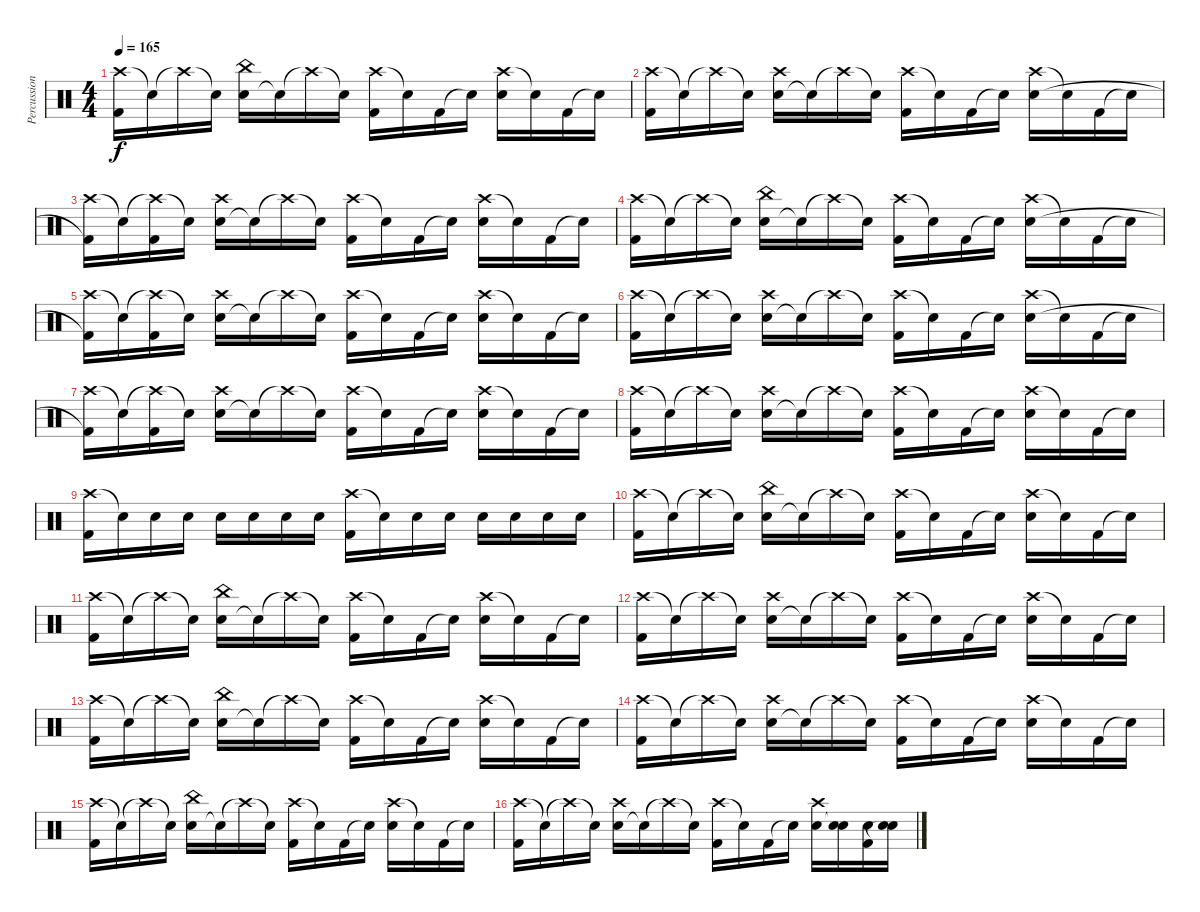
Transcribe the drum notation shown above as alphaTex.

\track ("Percussion" "Percussion") {instrument percussion}
\staff {score}
\articulation defaults
\ts (4 4)
\tempo 165
\clef neutral
\ks c
("Crash high (hit)" "Kick (hit) 2").16{dy f} "Snare (hit)"{t}.16 "Crash high (hit)"{t}.16 "Snare (hit)"{t}.16 ("Electric Snare (hit)" "China (hit)").16 "Snare (hit)"{t}.16 "Crash high (hit)"{t}.16 "Snare (hit)"{t}.16 ("Crash high (hit)" "Kick (hit) 2").16 "Snare (hit)"{t}.16 "Kick (hit) 2".16 "Snare (hit)"{t}.16 ("Crash high (hit)" "Electric Snare (hit)").16 "Snare (hit)"{t}.16 "Kick (hit) 2".16 "Snare (hit)"{t}.16 |
("Crash high (hit)" "Kick (hit) 2").16 "Snare (hit)"{t}.16 "Crash high (hit)"{t}.16 "Snare (hit)"{t}.16 ("Electric Snare (hit)" "Crash high (hit)").16 "Snare (hit)"{t}.16 "Crash high (hit)"{t}.16 "Snare (hit)"{t}.16 ("Crash high (hit)" "Kick (hit) 2").16 "Snare (hit)"{t}.16 "Kick (hit) 2".16 "Snare (hit)"{t}.16 ("Crash high (hit)" "Electric Snare (hit)").16 "Snare (hit)"{t}.16 "Kick (hit) 2".16 "Snare (hit)"{t}.16 |
("Crash high (hit)" "Kick (hit) 2"{t}).16 "Snare (hit)"{t}.16 ("Crash high (hit)"{t} "Kick (hit) 2").16 "Snare (hit)"{t}.16 ("Electric Snare (hit)" "Crash high (hit)").16 "Snare (hit)"{t}.16 "Crash high (hit)"{t}.16 "Snare (hit)"{t}.16 ("Crash high (hit)" "Kick (hit) 2").16 "Snare (hit)"{t}.16 "Kick (hit) 2".16 "Snare (hit)"{t}.16 ("Crash high (hit)" "Electric Snare (hit)").16 "Snare (hit)"{t}.16 "Kick (hit) 2".16 "Snare (hit)"{t}.16 |
("Crash high (hit)" "Kick (hit) 2").16 "Snare (hit)"{t}.16 "Crash high (hit)"{t}.16 "Snare (hit)"{t}.16 ("Electric Snare (hit)" "China (hit)").16 "Snare (hit)"{t}.16 "Crash high (hit)"{t}.16 "Snare (hit)"{t}.16 ("Crash high (hit)" "Kick (hit) 2").16 "Snare (hit)"{t}.16 "Kick (hit) 2".16 "Snare (hit)"{t}.16 ("Crash high (hit)" "Electric Snare (hit)").16 "Snare (hit)"{t}.16 "Kick (hit) 2".16 "Snare (hit)"{t}.16 |
("Crash high (hit)" "Kick (hit) 2"{t}).16 "Snare (hit)"{t}.16 ("Crash high (hit)"{t} "Kick (hit) 2").16 "Snare (hit)"{t}.16 ("Electric Snare (hit)" "Crash high (hit)").16 "Snare (hit)"{t}.16 "Crash high (hit)"{t}.16 "Snare (hit)"{t}.16 ("Crash high (hit)" "Kick (hit) 2").16 "Snare (hit)"{t}.16 "Kick (hit) 2".16 "Snare (hit)"{t}.16 ("Crash high (hit)" "Electric Snare (hit)").16 "Snare (hit)"{t}.16 "Kick (hit) 2".16 "Snare (hit)"{t}.16 |
("Crash high (hit)" "Kick (hit) 2").16 "Snare (hit)"{t}.16 "Crash high (hit)"{t}.16 "Snare (hit)"{t}.16 ("Electric Snare (hit)" "Crash high (hit)").16 "Snare (hit)"{t}.16 "Crash high (hit)"{t}.16 "Snare (hit)"{t}.16 ("Crash high (hit)" "Kick (hit) 2").16 "Snare (hit)"{t}.16 "Kick (hit) 2".16 "Snare (hit)"{t}.16 ("Crash high (hit)" "Electric Snare (hit)").16 "Snare (hit)"{t}.16 "Kick (hit) 2".16 "Snare (hit)"{t}.16 |
("Crash high (hit)" "Kick (hit) 2"{t}).16 "Snare (hit)"{t}.16 ("Crash high (hit)"{t} "Kick (hit) 2").16 "Snare (hit)"{t}.16 ("Electric Snare (hit)" "Crash high (hit)").16 "Snare (hit)"{t}.16 "Crash high (hit)"{t}.16 "Snare (hit)"{t}.16 ("Crash high (hit)" "Kick (hit) 2").16 "Snare (hit)"{t}.16 "Kick (hit) 2".16 "Snare (hit)"{t}.16 ("Crash high (hit)" "Electric Snare (hit)").16 "Snare (hit)"{t}.16 "Kick (hit) 2".16 "Snare (hit)"{t}.16 |
("Crash high (hit)" "Kick (hit) 2").16 "Snare (hit)"{t}.16 "Crash high (hit)"{t}.16 "Snare (hit)"{t}.16 ("Electric Snare (hit)" "Crash high (hit)").16 "Snare (hit)"{t}.16 "Crash high (hit)"{t}.16 "Snare (hit)"{t}.16 ("Crash high (hit)" "Kick (hit) 2").16 "Snare (hit)"{t}.16 "Kick (hit) 2".16 "Snare (hit)"{t}.16 ("Crash high (hit)" "Electric Snare (hit)").16 "Snare (hit)"{t}.16 "Kick (hit) 2".16 "Snare (hit)"{t}.16 |
("Crash high (hit)" "Kick (hit) 2").16 "Snare (hit)"{t}.16 "Electric Snare (hit)".16 "Electric Snare (hit)".16 "Electric Snare (hit)".16 "Electric Snare (hit)".16 "Electric Snare (hit)".16 "Electric Snare (hit)".16 ("Crash high (hit)" "Kick (hit) 2").16 "Snare (hit)"{t}.16 "Electric Snare (hit)".16 "Electric Snare (hit)".16 "Electric Snare (hit)".16 "Electric Snare (hit)".16 "Electric Snare (hit)".16 "Electric Snare (hit)".16 |
("Crash high (hit)" "Kick (hit) 2").16 "Snare (hit)"{t}.16 "Crash high (hit)"{t}.16 "Snare (hit)"{t}.16 ("Electric Snare (hit)" "China (hit)").16 "Snare (hit)"{t}.16 "Crash high (hit)"{t}.16 "Snare (hit)"{t}.16 ("Crash high (hit)" "Kick (hit) 2").16 "Snare (hit)"{t}.16 "Kick (hit) 2".16 "Snare (hit)"{t}.16 ("Crash high (hit)" "Electric Snare (hit)").16 "Snare (hit)"{t}.16 "Kick (hit) 2".16 "Snare (hit)"{t}.16 |
("Crash high (hit)" "Kick (hit) 2").16 "Snare (hit)"{t}.16 "Crash high (hit)"{t}.16 "Snare (hit)"{t}.16 ("Electric Snare (hit)" "China (hit)").16 "Snare (hit)"{t}.16 "Crash high (hit)"{t}.16 "Snare (hit)"{t}.16 ("Crash high (hit)" "Kick (hit) 2").16 "Snare (hit)"{t}.16 "Kick (hit) 2".16 "Snare (hit)"{t}.16 ("Crash high (hit)" "Electric Snare (hit)").16 "Snare (hit)"{t}.16 "Kick (hit) 2".16 "Snare (hit)"{t}.16 |
("Crash high (hit)" "Kick (hit) 2").16 "Snare (hit)"{t}.16 "Crash high (hit)"{t}.16 "Snare (hit)"{t}.16 ("Electric Snare (hit)" "Crash high (hit)").16 "Snare (hit)"{t}.16 "Crash high (hit)"{t}.16 "Snare (hit)"{t}.16 ("Crash high (hit)" "Kick (hit) 2").16 "Snare (hit)"{t}.16 "Kick (hit) 2".16 "Snare (hit)"{t}.16 ("Crash high (hit)" "Electric Snare (hit)").16 "Snare (hit)"{t}.16 "Kick (hit) 2".16 "Snare (hit)"{t}.16 |
("Crash high (hit)" "Kick (hit) 2").16 "Snare (hit)"{t}.16 "Crash high (hit)"{t}.16 "Snare (hit)"{t}.16 ("Electric Snare (hit)" "China (hit)").16 "Snare (hit)"{t}.16 "Crash high (hit)"{t}.16 "Snare (hit)"{t}.16 ("Crash high (hit)" "Kick (hit) 2").16 "Snare (hit)"{t}.16 "Kick (hit) 2".16 "Snare (hit)"{t}.16 ("Crash high (hit)" "Electric Snare (hit)").16 "Snare (hit)"{t}.16 "Kick (hit) 2".16 "Snare (hit)"{t}.16 |
("Crash high (hit)" "Kick (hit) 2").16 "Snare (hit)"{t}.16 "Crash high (hit)"{t}.16 "Snare (hit)"{t}.16 ("Electric Snare (hit)" "Crash high (hit)").16 "Snare (hit)"{t}.16 "Crash high (hit)"{t}.16 "Snare (hit)"{t}.16 ("Crash high (hit)" "Kick (hit) 2").16 "Snare (hit)"{t}.16 "Kick (hit) 2".16 "Snare (hit)"{t}.16 ("Crash high (hit)" "Electric Snare (hit)").16 "Snare (hit)"{t}.16 "Kick (hit) 2".16 "Snare (hit)"{t}.16 |
("Crash high (hit)" "Kick (hit) 2").16 "Snare (hit)"{t}.16 "Crash high (hit)"{t}.16 "Snare (hit)"{t}.16 ("Electric Snare (hit)" "China (hit)").16 "Snare (hit)"{t}.16 "Crash high (hit)"{t}.16 "Snare (hit)"{t}.16 ("Crash high (hit)" "Kick (hit) 2").16 "Snare (hit)"{t}.16 "Kick (hit) 2".16 "Snare (hit)"{t}.16 ("Crash high (hit)" "Electric Snare (hit)").16 "Snare (hit)"{t}.16 "Kick (hit) 2".16 "Snare (hit)"{t}.16 |
("Crash high (hit)" "Kick (hit) 2").16 "Snare (hit)"{t}.16 "Crash high (hit)"{t}.16 "Snare (hit)"{t}.16 ("Electric Snare (hit)" "Crash high (hit)").16 "Snare (hit)"{t}.16 "Crash high (hit)"{t}.16 "Snare (hit)"{t}.16 ("Crash high (hit)" "Kick (hit) 2").16 "Snare (hit)"{t}.16 "Kick (hit) 2".16 "Snare (hit)"{t}.16 ("Crash high (hit)" "Electric Snare (hit)").16 ("Electric Snare (hit)" "Snare (hit)"{t}).16 ("Electric Snare (hit)" "Kick (hit) 2").16 ("Electric Snare (hit)" "Snare (hit)"{t}).16
